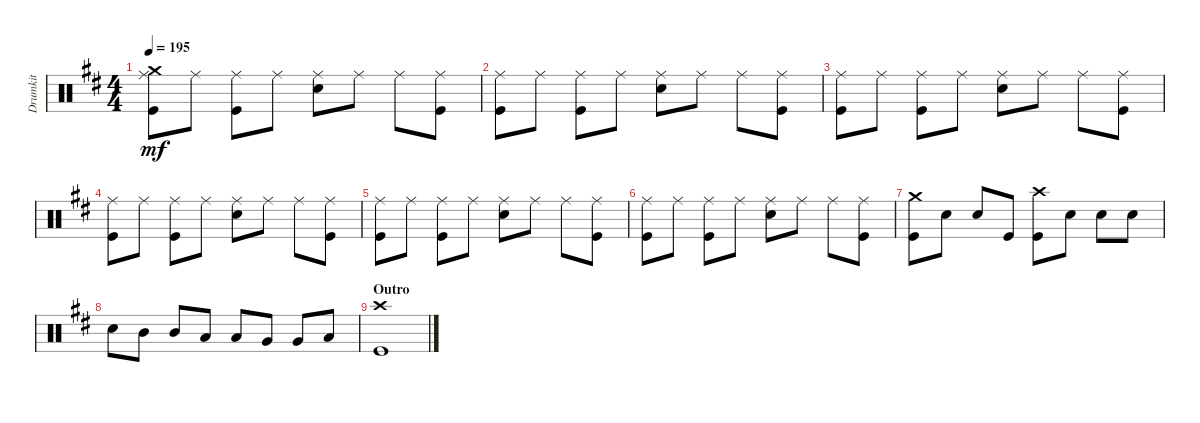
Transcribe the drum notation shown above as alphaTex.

\track ("Drumkit" "Drumkit") {instrument percussion}
\staff {score}
\articulation defaults
\ts (4 4)
\tempo 195
\clef neutral
\ks bminor
("Ride (middle)" "Kick (hit)" "Crash medium (hit)").8{dy mf} "Ride (middle)".8 ("Ride (middle)" "Kick (hit)").8 "Ride (middle)".8 ("Ride (middle)" "Snare (hit) 2").8 "Ride (middle)".8 "Ride (middle)".8 ("Ride (middle)" "Kick (hit)").8 |
("Ride (middle)" "Kick (hit)").8 "Ride (middle)".8 ("Ride (middle)" "Kick (hit)").8 "Ride (middle)".8 ("Ride (middle)" "Snare (hit) 2").8 "Ride (middle)".8 "Ride (middle)".8 ("Ride (middle)" "Kick (hit)").8 |
("Ride (middle)" "Kick (hit)").8 "Ride (middle)".8 ("Ride (middle)" "Kick (hit)").8 "Ride (middle)".8 ("Ride (middle)" "Snare (hit) 2").8 "Ride (middle)".8 "Ride (middle)".8 ("Ride (middle)" "Kick (hit)").8 |
("Ride (middle)" "Kick (hit)").8 "Ride (middle)".8 ("Ride (middle)" "Kick (hit)").8 "Ride (middle)".8 ("Ride (middle)" "Snare (hit) 2").8 "Ride (middle)".8 "Ride (middle)".8 ("Ride (middle)" "Kick (hit)").8 |
("Ride (middle)" "Kick (hit)").8 "Ride (middle)".8 ("Ride (middle)" "Kick (hit)").8 "Ride (middle)".8 ("Ride (middle)" "Snare (hit) 2").8 "Ride (middle)".8 "Ride (middle)".8 ("Ride (middle)" "Kick (hit)").8 |
("Ride (middle)" "Kick (hit)").8 "Ride (middle)".8 ("Ride (middle)" "Kick (hit)").8 "Ride (middle)".8 ("Ride (middle)" "Snare (hit) 2").8 "Ride (middle)".8 "Ride (middle)".8 ("Ride (middle)" "Kick (hit)").8 |
("Kick (hit)" "Crash medium (hit)").8 "Snare (hit) 2".8 "Snare (hit) 2".8 "Kick (hit)".8 ("Kick (hit)" "Crash high (hit)").8 "Snare (hit) 2".8 "Snare (hit) 2".8 "Snare (hit) 2".8 |
"Snare (hit) 2".8 "Mid Tom (hit)".8 "Mid Tom (hit)".8 "Low Tom (hit)".8 "Low Tom (hit)".8 "Very Low Tom (hit)".8 "Very Low Tom (hit)".8 "Low Floor Tom (hit)".8 |
\section ("" "Outro")
("Kick (hit)" "Crash high (hit)").1
